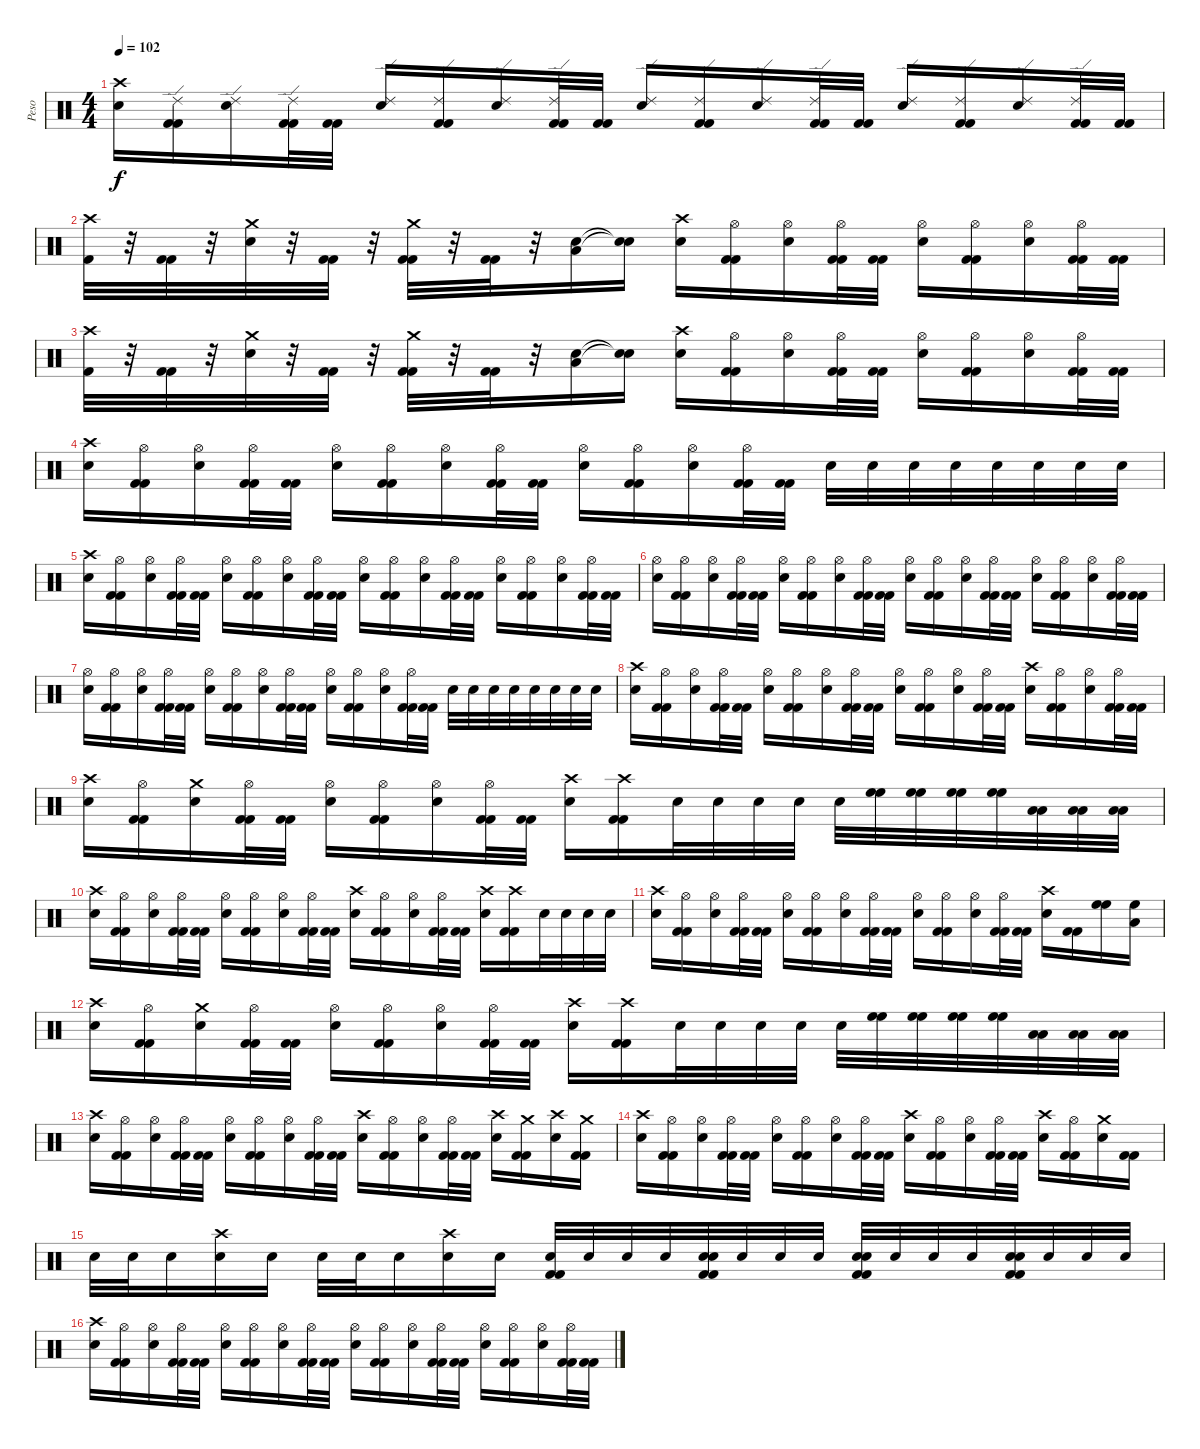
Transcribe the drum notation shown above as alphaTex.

\track ("Peso" "Peso") {instrument percussion}
\staff {score}
\articulation defaults
\ts (4 4)
\tempo 102
\clef neutral
\ks c
("Crash high (hit)" "Snare (hit) 2").16{dy f} ("Ride (edge) 2" "Kick (hit) 2" "Kick (hit) 2").16 ("Ride (edge) 2" "Snare (hit) 2").16 ("Ride (edge) 2" "Kick (hit) 2" "Kick (hit) 2").32 ("Kick (hit) 2" "Kick (hit) 2").32 ("Ride (edge) 2" "Snare (hit) 2").16 ("Ride (edge) 2" "Kick (hit) 2" "Kick (hit) 2").16 ("Ride (edge) 2" "Snare (hit) 2").16 ("Ride (edge) 2" "Kick (hit) 2" "Kick (hit) 2").32 ("Kick (hit) 2" "Kick (hit) 2").32 ("Ride (edge) 2" "Snare (hit) 2").16 ("Ride (edge) 2" "Kick (hit) 2" "Kick (hit) 2").16 ("Ride (edge) 2" "Snare (hit) 2").16 ("Ride (edge) 2" "Kick (hit) 2" "Kick (hit) 2").32 ("Kick (hit) 2" "Kick (hit) 2").32 ("Ride (edge) 2" "Snare (hit) 2").16 ("Ride (edge) 2" "Kick (hit) 2" "Kick (hit) 2").16 ("Ride (edge) 2" "Snare (hit) 2").16 ("Ride (edge) 2" "Kick (hit) 2" "Kick (hit) 2").32 ("Kick (hit) 2" "Kick (hit) 2").32 |
("Crash high (hit)" "Kick (hit) 2").32 r.32 ("Kick (hit) 2" "Kick (hit) 2").32 r.32 ("Crash medium (hit)" "Snare (hit) 2").32 r.32 ("Kick (hit) 2" "Kick (hit) 2").32 r.32 ("Crash medium (hit)" "Kick (hit) 2" "Kick (hit) 2").32 r.32 ("Kick (hit) 2" "Kick (hit) 2").32 r.32 ("Low Floor Tom (hit)" "Snare (hit) 2").16 ("Snare (hit)"{t} "Snare (hit)"{t}).16 ("Crash high (hit)" "Snare (hit) 2").16 ("Hi-Hat (open)" "Kick (hit) 2" "Kick (hit) 2").16 ("Hi-Hat (open)" "Snare (hit) 2").16 ("Hi-Hat (open)" "Kick (hit) 2" "Kick (hit) 2").32 ("Kick (hit) 2" "Kick (hit) 2").32 ("Hi-Hat (open)" "Snare (hit) 2").16 ("Hi-Hat (open)" "Kick (hit) 2" "Kick (hit) 2").16 ("Hi-Hat (open)" "Snare (hit) 2").16 ("Hi-Hat (open)" "Kick (hit) 2" "Kick (hit) 2").32 ("Kick (hit) 2" "Kick (hit) 2").32 |
("Crash high (hit)" "Kick (hit) 2").32 r.32 ("Kick (hit) 2" "Kick (hit) 2").32 r.32 ("Crash medium (hit)" "Snare (hit) 2").32 r.32 ("Kick (hit) 2" "Kick (hit) 2").32 r.32 ("Crash medium (hit)" "Kick (hit) 2" "Kick (hit) 2").32 r.32 ("Kick (hit) 2" "Kick (hit) 2").32 r.32 ("Low Floor Tom (hit)" "Snare (hit) 2").16 ("Snare (hit)"{t} "Snare (hit)"{t}).16 ("Crash high (hit)" "Snare (hit) 2").16 ("Hi-Hat (open)" "Kick (hit) 2" "Kick (hit) 2").16 ("Hi-Hat (open)" "Snare (hit) 2").16 ("Hi-Hat (open)" "Kick (hit) 2" "Kick (hit) 2").32 ("Kick (hit) 2" "Kick (hit) 2").32 ("Hi-Hat (open)" "Snare (hit) 2").16 ("Hi-Hat (open)" "Kick (hit) 2" "Kick (hit) 2").16 ("Hi-Hat (open)" "Snare (hit) 2").16 ("Hi-Hat (open)" "Kick (hit) 2" "Kick (hit) 2").32 ("Kick (hit) 2" "Kick (hit) 2").32 |
("Crash high (hit)" "Snare (hit) 2").16 ("Hi-Hat (open)" "Kick (hit) 2" "Kick (hit) 2").16 ("Hi-Hat (open)" "Snare (hit) 2").16 ("Hi-Hat (open)" "Kick (hit) 2" "Kick (hit) 2").32 ("Kick (hit) 2" "Kick (hit) 2").32 ("Hi-Hat (open)" "Snare (hit) 2").16 ("Hi-Hat (open)" "Kick (hit) 2" "Kick (hit) 2").16 ("Hi-Hat (open)" "Snare (hit) 2").16 ("Hi-Hat (open)" "Kick (hit) 2" "Kick (hit) 2").32 ("Kick (hit) 2" "Kick (hit) 2").32 ("Hi-Hat (open)" "Snare (hit) 2").16 ("Hi-Hat (open)" "Kick (hit) 2" "Kick (hit) 2").16 ("Hi-Hat (open)" "Snare (hit) 2").16 ("Hi-Hat (open)" "Kick (hit) 2" "Kick (hit) 2").32 ("Kick (hit) 2" "Kick (hit) 2").32 "Snare (hit) 2".32 "Snare (hit) 2".32 "Snare (hit) 2".32 "Snare (hit) 2".32 "Snare (hit) 2".32 "Snare (hit) 2".32 "Snare (hit) 2".32 "Snare (hit) 2".32 |
("Crash high (hit)" "Snare (hit) 2").16 ("Hi-Hat (open)" "Kick (hit) 2" "Kick (hit) 2").16 ("Hi-Hat (open)" "Snare (hit) 2").16 ("Hi-Hat (open)" "Kick (hit) 2" "Kick (hit) 2").32 ("Kick (hit) 2" "Kick (hit) 2").32 ("Hi-Hat (open)" "Snare (hit) 2").16 ("Hi-Hat (open)" "Kick (hit) 2" "Kick (hit) 2").16 ("Hi-Hat (open)" "Snare (hit) 2").16 ("Hi-Hat (open)" "Kick (hit) 2" "Kick (hit) 2").32 ("Kick (hit) 2" "Kick (hit) 2").32 ("Hi-Hat (open)" "Snare (hit) 2").16 ("Hi-Hat (open)" "Kick (hit) 2" "Kick (hit) 2").16 ("Hi-Hat (open)" "Snare (hit) 2").16 ("Hi-Hat (open)" "Kick (hit) 2" "Kick (hit) 2").32 ("Kick (hit) 2" "Kick (hit) 2").32 ("Hi-Hat (open)" "Snare (hit) 2").16 ("Hi-Hat (open)" "Kick (hit) 2" "Kick (hit) 2").16 ("Hi-Hat (open)" "Snare (hit) 2").16 ("Hi-Hat (open)" "Kick (hit) 2" "Kick (hit) 2").32 ("Kick (hit) 2" "Kick (hit) 2").32 |
("Hi-Hat (open)" "Snare (hit) 2").16 ("Hi-Hat (open)" "Kick (hit) 2" "Kick (hit) 2").16 ("Hi-Hat (open)" "Snare (hit) 2").16 ("Hi-Hat (open)" "Kick (hit) 2" "Kick (hit) 2").32 ("Kick (hit) 2" "Kick (hit) 2").32 ("Hi-Hat (open)" "Snare (hit) 2").16 ("Hi-Hat (open)" "Kick (hit) 2" "Kick (hit) 2").16 ("Hi-Hat (open)" "Snare (hit) 2").16 ("Hi-Hat (open)" "Kick (hit) 2" "Kick (hit) 2").32 ("Kick (hit) 2" "Kick (hit) 2").32 ("Hi-Hat (open)" "Snare (hit) 2").16 ("Hi-Hat (open)" "Kick (hit) 2" "Kick (hit) 2").16 ("Hi-Hat (open)" "Snare (hit) 2").16 ("Hi-Hat (open)" "Kick (hit) 2" "Kick (hit) 2").32 ("Kick (hit) 2" "Kick (hit) 2").32 ("Hi-Hat (open)" "Snare (hit) 2").16 ("Hi-Hat (open)" "Kick (hit) 2" "Kick (hit) 2").16 ("Hi-Hat (open)" "Snare (hit) 2").16 ("Hi-Hat (open)" "Kick (hit) 2" "Kick (hit) 2").32 ("Kick (hit) 2" "Kick (hit) 2").32 |
("Hi-Hat (open)" "Snare (hit) 2").16 ("Hi-Hat (open)" "Kick (hit) 2" "Kick (hit) 2").16 ("Hi-Hat (open)" "Snare (hit) 2").16 ("Hi-Hat (open)" "Kick (hit) 2" "Kick (hit) 2").32 ("Kick (hit) 2" "Kick (hit) 2").32 ("Hi-Hat (open)" "Snare (hit) 2").16 ("Hi-Hat (open)" "Kick (hit) 2" "Kick (hit) 2").16 ("Hi-Hat (open)" "Snare (hit) 2").16 ("Hi-Hat (open)" "Kick (hit) 2" "Kick (hit) 2").32 ("Kick (hit) 2" "Kick (hit) 2").32 ("Hi-Hat (open)" "Snare (hit) 2").16 ("Hi-Hat (open)" "Kick (hit) 2" "Kick (hit) 2").16 ("Hi-Hat (open)" "Snare (hit) 2").16 ("Hi-Hat (open)" "Kick (hit) 2" "Kick (hit) 2").32 ("Kick (hit) 2" "Kick (hit) 2").32 "Snare (hit) 2".32 "Snare (hit) 2".32 "Snare (hit) 2".32 "Snare (hit) 2".32 "Snare (hit) 2".32 "Snare (hit) 2".32 "Snare (hit) 2".32 "Snare (hit) 2".32 |
("Crash high (hit)" "Snare (hit) 2").16 ("Hi-Hat (open)" "Kick (hit) 2" "Kick (hit) 2").16 ("Hi-Hat (open)" "Snare (hit) 2").16 ("Hi-Hat (open)" "Kick (hit) 2" "Kick (hit) 2").32 ("Kick (hit) 2" "Kick (hit) 2").32 ("Hi-Hat (open)" "Snare (hit) 2").16 ("Hi-Hat (open)" "Kick (hit) 2" "Kick (hit) 2").16 ("Hi-Hat (open)" "Snare (hit) 2").16 ("Hi-Hat (open)" "Kick (hit) 2" "Kick (hit) 2").32 ("Kick (hit) 2" "Kick (hit) 2").32 ("Hi-Hat (open)" "Snare (hit) 2").16 ("Hi-Hat (open)" "Kick (hit) 2" "Kick (hit) 2").16 ("Hi-Hat (open)" "Snare (hit) 2").16 ("Hi-Hat (open)" "Kick (hit) 2" "Kick (hit) 2").32 ("Kick (hit) 2" "Kick (hit) 2").32 ("Crash high (hit)" "Snare (hit) 2").16 ("Hi-Hat (open)" "Kick (hit) 2" "Kick (hit) 2").16 ("Hi-Hat (open)" "Snare (hit) 2").16 ("Hi-Hat (open)" "Kick (hit) 2" "Kick (hit) 2").32 ("Kick (hit) 2" "Kick (hit) 2").32 |
("Crash high (hit)" "Snare (hit) 2").16 ("Hi-Hat (open)" "Kick (hit) 2" "Kick (hit) 2").16 ("Crash medium (hit)" "Snare (hit) 2").16 ("Hi-Hat (open)" "Kick (hit) 2" "Kick (hit) 2").32 ("Kick (hit) 2" "Kick (hit) 2").32 ("Hi-Hat (open)" "Snare (hit) 2").16 ("Hi-Hat (open)" "Kick (hit) 2" "Kick (hit) 2").16 ("Hi-Hat (open)" "Snare (hit) 2").16 ("Hi-Hat (open)" "Kick (hit) 2" "Kick (hit) 2").32 ("Kick (hit) 2" "Kick (hit) 2").32 ("Crash high (hit)" "Snare (hit) 2").16 ("Crash high (hit)" "Kick (hit) 2" "Kick (hit) 2").16 "Snare (hit) 2".32 "Snare (hit) 2".32 "Snare (hit) 2".32 "Snare (hit) 2".32 "Snare (hit) 2".32 ("High Floor Tom (hit)" "High Floor Tom (hit)").32{volume 16} ("High Floor Tom (hit)" "High Floor Tom (hit)").32 ("High Floor Tom (hit)" "High Floor Tom (hit)").32 ("High Floor Tom (hit)" "High Floor Tom (hit)").32 ("Low Floor Tom (hit)" "Low Floor Tom (hit)").32 ("Low Floor Tom (hit)" "Low Floor Tom (hit)").32 ("Low Floor Tom (hit)" "Low Floor Tom (hit)").32 |
("Crash high (hit)" "Snare (hit) 2").16{volume 15} ("Hi-Hat (open)" "Kick (hit) 2" "Kick (hit) 2").16 ("Hi-Hat (open)" "Snare (hit) 2").16 ("Hi-Hat (open)" "Kick (hit) 2" "Kick (hit) 2").32 ("Kick (hit) 2" "Kick (hit) 2").32 ("Hi-Hat (open)" "Snare (hit) 2").16 ("Hi-Hat (open)" "Kick (hit) 2" "Kick (hit) 2").16 ("Hi-Hat (open)" "Snare (hit) 2").16 ("Hi-Hat (open)" "Kick (hit) 2" "Kick (hit) 2").32 ("Kick (hit) 2" "Kick (hit) 2").32 ("Crash high (hit)" "Snare (hit) 2").16 ("Hi-Hat (open)" "Kick (hit) 2" "Kick (hit) 2").16 ("Hi-Hat (open)" "Snare (hit) 2").16 ("Hi-Hat (open)" "Kick (hit) 2" "Kick (hit) 2").32 ("Kick (hit) 2" "Kick (hit) 2").32 ("Crash high (hit)" "Snare (hit) 2").16 ("Crash high (hit)" "Kick (hit) 2" "Kick (hit) 2").16 "Snare (hit) 2".32 "Snare (hit) 2".32 "Snare (hit) 2".32 "Snare (hit) 2".32 |
("Crash high (hit)" "Snare (hit) 2").16 ("Hi-Hat (open)" "Kick (hit) 2" "Kick (hit) 2").16 ("Hi-Hat (open)" "Snare (hit) 2").16 ("Hi-Hat (open)" "Kick (hit) 2" "Kick (hit) 2").32 ("Kick (hit) 2" "Kick (hit) 2").32 ("Hi-Hat (open)" "Snare (hit) 2").16 ("Hi-Hat (open)" "Kick (hit) 2" "Kick (hit) 2").16 ("Hi-Hat (open)" "Snare (hit) 2").16 ("Hi-Hat (open)" "Kick (hit) 2" "Kick (hit) 2").32 ("Kick (hit) 2" "Kick (hit) 2").32 ("Hi-Hat (open)" "Snare (hit) 2").16 ("Hi-Hat (open)" "Kick (hit) 2" "Kick (hit) 2").16 ("Hi-Hat (open)" "Snare (hit) 2").16 ("Hi-Hat (open)" "Kick (hit) 2" "Kick (hit) 2").32 ("Kick (hit) 2" "Kick (hit) 2").32 ("Crash high (hit)" "Snare (hit) 2").16 ("Kick (hit) 2" "Kick (hit) 2").16 ("High Floor Tom (hit)" "High Floor Tom (hit)").16{volume 16} ("High Floor Tom (hit)" "Low Floor Tom (hit)").16 |
("Crash high (hit)" "Snare (hit) 2").16{volume 15} ("Hi-Hat (open)" "Kick (hit) 2" "Kick (hit) 2").16 ("Crash medium (hit)" "Snare (hit) 2").16 ("Hi-Hat (open)" "Kick (hit) 2" "Kick (hit) 2").32 ("Kick (hit) 2" "Kick (hit) 2").32 ("Hi-Hat (open)" "Snare (hit) 2").16 ("Hi-Hat (open)" "Kick (hit) 2" "Kick (hit) 2").16 ("Hi-Hat (open)" "Snare (hit) 2").16 ("Hi-Hat (open)" "Kick (hit) 2" "Kick (hit) 2").32 ("Kick (hit) 2" "Kick (hit) 2").32 ("Crash high (hit)" "Snare (hit) 2").16 ("Crash high (hit)" "Kick (hit) 2" "Kick (hit) 2").16 "Snare (hit) 2".32 "Snare (hit) 2".32 "Snare (hit) 2".32 "Snare (hit) 2".32 "Snare (hit) 2".32 ("High Floor Tom (hit)" "High Floor Tom (hit)").32{volume 16} ("High Floor Tom (hit)" "High Floor Tom (hit)").32 ("High Floor Tom (hit)" "High Floor Tom (hit)").32 ("High Floor Tom (hit)" "High Floor Tom (hit)").32 ("Low Floor Tom (hit)" "Low Floor Tom (hit)").32 ("Low Floor Tom (hit)" "Low Floor Tom (hit)").32 ("Low Floor Tom (hit)" "Low Floor Tom (hit)").32 |
("Crash high (hit)" "Snare (hit) 2").16{volume 15} ("Hi-Hat (open)" "Kick (hit) 2" "Kick (hit) 2").16 ("Hi-Hat (open)" "Snare (hit) 2").16 ("Hi-Hat (open)" "Kick (hit) 2" "Kick (hit) 2").32 ("Kick (hit) 2" "Kick (hit) 2").32 ("Hi-Hat (open)" "Snare (hit) 2").16 ("Hi-Hat (open)" "Kick (hit) 2" "Kick (hit) 2").16 ("Hi-Hat (open)" "Snare (hit) 2").16 ("Hi-Hat (open)" "Kick (hit) 2" "Kick (hit) 2").32 ("Kick (hit) 2" "Kick (hit) 2").32 ("Crash high (hit)" "Snare (hit) 2").16 ("Hi-Hat (open)" "Kick (hit) 2" "Kick (hit) 2").16 ("Hi-Hat (open)" "Snare (hit) 2").16 ("Hi-Hat (open)" "Kick (hit) 2" "Kick (hit) 2").32 ("Kick (hit) 2" "Kick (hit) 2").32 ("Crash high (hit)" "Snare (hit) 2").16 ("Crash medium (hit)" "Kick (hit) 2" "Kick (hit) 2").16 ("Crash high (hit)" "Snare (hit) 2").16 ("Crash medium (hit)" "Kick (hit) 2" "Kick (hit) 2").16 |
("Crash high (hit)" "Snare (hit) 2").16 ("Hi-Hat (open)" "Kick (hit) 2" "Kick (hit) 2").16 ("Hi-Hat (open)" "Snare (hit) 2").16 ("Hi-Hat (open)" "Kick (hit) 2" "Kick (hit) 2").32 ("Kick (hit) 2" "Kick (hit) 2").32 ("Hi-Hat (open)" "Snare (hit) 2").16 ("Hi-Hat (open)" "Kick (hit) 2" "Kick (hit) 2").16 ("Hi-Hat (open)" "Snare (hit) 2").16 ("Hi-Hat (open)" "Kick (hit) 2" "Kick (hit) 2").32 ("Kick (hit) 2" "Kick (hit) 2").32 ("Crash high (hit)" "Snare (hit) 2").16 ("Hi-Hat (open)" "Kick (hit) 2" "Kick (hit) 2").16 ("Hi-Hat (open)" "Snare (hit) 2").16 ("Hi-Hat (open)" "Kick (hit) 2" "Kick (hit) 2").32 ("Kick (hit) 2" "Kick (hit) 2").32 ("Crash high (hit)" "Snare (hit) 2").16 ("Hi-Hat (open)" "Kick (hit) 2" "Kick (hit) 2").16 ("Crash medium (hit)" "Snare (hit) 2").16 ("Kick (hit) 2" "Kick (hit) 2").16 |
"Snare (hit) 2".32 "Snare (hit) 2".32 "Snare (hit) 2".16 ("Crash high (hit)" "Snare (hit) 2").16 "Snare (hit) 2".16 "Snare (hit) 2".32 "Snare (hit) 2".32 "Snare (hit) 2".16 ("Crash high (hit)" "Snare (hit) 2").16 "Snare (hit) 2".16 ("Snare (hit) 2" "Kick (hit) 2" "Kick (hit) 2").32 "Snare (hit) 2".32 "Snare (hit) 2".32 "Snare (hit) 2".32 ("Snare (hit) 2" "Snare (hit) 2" "Kick (hit) 2" "Kick (hit) 2").32 "Snare (hit) 2".32 "Snare (hit) 2".32 "Snare (hit) 2".32 ("Snare (hit) 2" "Snare (hit) 2" "Kick (hit) 2" "Kick (hit) 2").32 "Snare (hit) 2".32 "Snare (hit) 2".32 "Snare (hit) 2".32 ("Snare (hit) 2" "Snare (hit) 2" "Kick (hit) 2" "Kick (hit) 2").32 "Snare (hit) 2".32 "Snare (hit) 2".32 "Snare (hit) 2".32 |
("Crash high (hit)" "Snare (hit) 2").16 ("Hi-Hat (open)" "Kick (hit) 2" "Kick (hit) 2").16 ("Hi-Hat (open)" "Snare (hit) 2").16 ("Hi-Hat (open)" "Kick (hit) 2" "Kick (hit) 2").32 ("Kick (hit) 2" "Kick (hit) 2").32 ("Hi-Hat (open)" "Snare (hit) 2").16 ("Hi-Hat (open)" "Kick (hit) 2" "Kick (hit) 2").16 ("Hi-Hat (open)" "Snare (hit) 2").16 ("Hi-Hat (open)" "Kick (hit) 2" "Kick (hit) 2").32 ("Kick (hit) 2" "Kick (hit) 2").32 ("Hi-Hat (open)" "Snare (hit) 2").16 ("Hi-Hat (open)" "Kick (hit) 2" "Kick (hit) 2").16 ("Hi-Hat (open)" "Snare (hit) 2").16 ("Hi-Hat (open)" "Kick (hit) 2" "Kick (hit) 2").32 ("Kick (hit) 2" "Kick (hit) 2").32 ("Hi-Hat (open)" "Snare (hit) 2").16 ("Hi-Hat (open)" "Kick (hit) 2" "Kick (hit) 2").16 ("Hi-Hat (open)" "Snare (hit) 2").16 ("Hi-Hat (open)" "Kick (hit) 2" "Kick (hit) 2").32 ("Kick (hit) 2" "Kick (hit) 2").32
